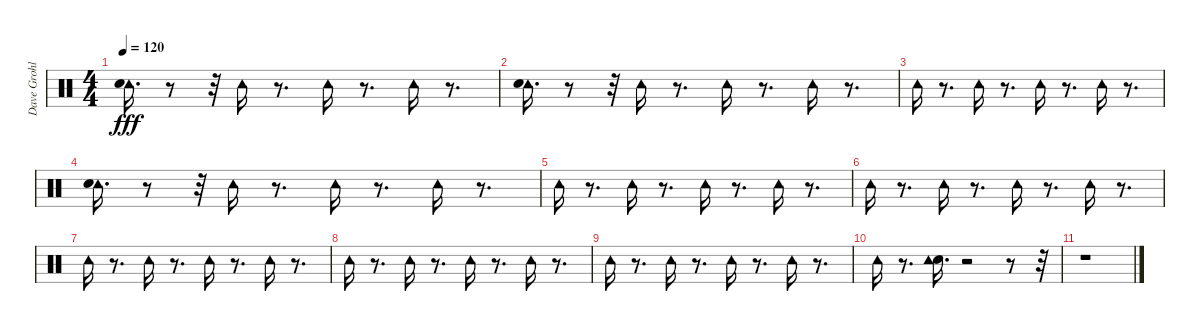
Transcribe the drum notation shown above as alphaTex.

\track ("Dave Grohl " "Dave Grohl") {instrument percussion}
\staff {score}
\articulation defaults
\ts (4 4)
\tempo 120
\clef neutral
\ks c
("Tambourine (hit)" "Hand Clap (hit)").16{d dy fff} r.8 r.32 "Tambourine (hit)".16 r.8{d} "Tambourine (hit)".16 r.8{d} "Tambourine (hit)".16 r.8{d} |
("Tambourine (hit)" "Hand Clap (hit)").16{d} r.8 r.32 "Tambourine (hit)".16 r.8{d} "Tambourine (hit)".16 r.8{d} "Tambourine (hit)".16 r.8{d} |
"Tambourine (hit)".16 r.8{d} "Tambourine (hit)".16 r.8{d} "Tambourine (hit)".16 r.8{d} "Tambourine (hit)".16 r.8{d} |
("Tambourine (hit)" "Hand Clap (hit)").16{d} r.8 r.32 "Tambourine (hit)".16 r.8{d} "Tambourine (hit)".16 r.8{d} "Tambourine (hit)".16 r.8{d} |
"Tambourine (hit)".16 r.8{d} "Tambourine (hit)".16 r.8{d} "Tambourine (hit)".16 r.8{d} "Tambourine (hit)".16 r.8{d} |
"Tambourine (hit)".16 r.8{d} "Tambourine (hit)".16 r.8{d} "Tambourine (hit)".16 r.8{d} "Tambourine (hit)".16 r.8{d} |
"Tambourine (hit)".16 r.8{d} "Tambourine (hit)".16 r.8{d} "Tambourine (hit)".16 r.8{d} "Tambourine (hit)".16 r.8{d} |
"Tambourine (hit)".16 r.8{d} "Tambourine (hit)".16 r.8{d} "Tambourine (hit)".16 r.8{d} "Tambourine (hit)".16 r.8{d} |
"Tambourine (hit)".16 r.8{d} "Tambourine (hit)".16 r.8{d} "Tambourine (hit)".16 r.8{d} "Tambourine (hit)".16 r.8{d} |
"Tambourine (hit)".16 r.8{d} ("Electric Snare (hit)" "Tambourine (hit)").16{d} r.2 r.8 r.32 |
r.1
